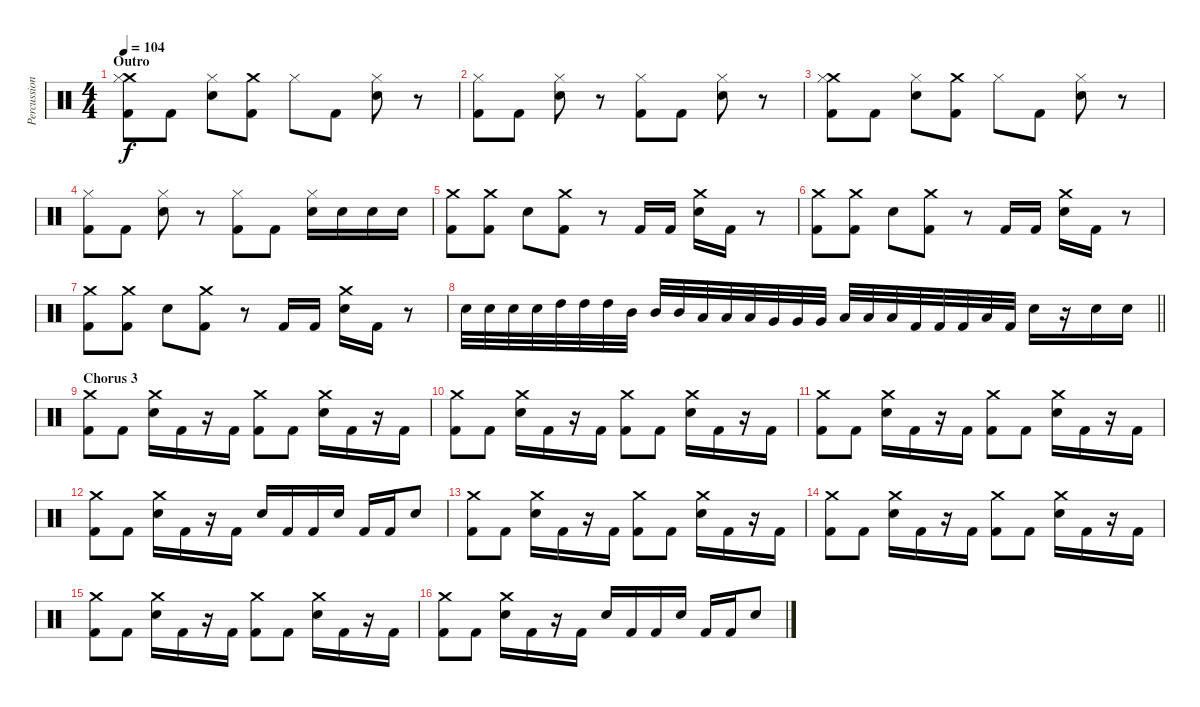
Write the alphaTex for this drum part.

\track ("Percussioni" "Percussion") {instrument percussion}
\staff {score}
\articulation defaults
\ts (4 4)
\section ("" "Outro")
\tempo 104
\clef neutral
\ks c
("Crash medium (hit)" "Hi-Hat (closed)" "Kick (hit) 2").8{dy f} "Kick (hit) 2".8 ("Hi-Hat (closed)" "Electric Snare (hit)").8 ("Crash medium (hit)" "Kick (hit) 2").8 "Hi-Hat (closed)".8 "Kick (hit) 2".8 ("Hi-Hat (closed)" "Electric Snare (hit)").8 r.8 |
("Hi-Hat (closed)" "Kick (hit) 2").8 "Kick (hit) 2".8 ("Hi-Hat (closed)" "Electric Snare (hit)").8 r.8 ("Hi-Hat (closed)" "Kick (hit) 2").8 "Kick (hit) 2".8 ("Hi-Hat (closed)" "Electric Snare (hit)").8 r.8 |
("Crash medium (hit)" "Hi-Hat (closed)" "Kick (hit) 2").8 "Kick (hit) 2".8 ("Hi-Hat (closed)" "Electric Snare (hit)").8 ("Crash medium (hit)" "Kick (hit) 2").8 "Hi-Hat (closed)".8 "Kick (hit) 2".8 ("Hi-Hat (closed)" "Electric Snare (hit)").8 r.8 |
("Hi-Hat (closed)" "Kick (hit) 2").8 "Kick (hit) 2".8 ("Hi-Hat (closed)" "Electric Snare (hit)").8 r.8 ("Hi-Hat (closed)" "Kick (hit) 2").8 "Kick (hit) 2".8 ("Hi-Hat (closed)" "Electric Snare (hit)").16 "Electric Snare (hit)".16 "Electric Snare (hit)".16 "Electric Snare (hit)".16 |
("Crash medium (hit)" "Kick (hit) 2").8 ("Crash medium (hit)" "Kick (hit) 2").8 "Electric Snare (hit)".8 ("Crash medium (hit)" "Kick (hit) 2").8 r.8 "Kick (hit) 2".16 "Kick (hit) 2".16 ("Crash medium (hit)" "Electric Snare (hit)").16 "Kick (hit) 2".16 r.8 |
("Crash medium (hit)" "Kick (hit) 2").8 ("Crash medium (hit)" "Kick (hit) 2").8 "Electric Snare (hit)".8 ("Crash medium (hit)" "Kick (hit) 2").8 r.8 "Kick (hit) 2".16 "Kick (hit) 2".16 ("Crash medium (hit)" "Electric Snare (hit)").16 "Kick (hit) 2".16 r.8 |
("Crash medium (hit)" "Kick (hit) 2").8 ("Crash medium (hit)" "Kick (hit) 2").8 "Electric Snare (hit)".8 ("Crash medium (hit)" "Kick (hit) 2").8 r.8 "Kick (hit) 2".16 "Kick (hit) 2".16 ("Crash medium (hit)" "Electric Snare (hit)").16 "Kick (hit) 2".16 r.8 |
\barLineRight lightlight "Electric Snare (hit)".32 "Electric Snare (hit)".32 "Electric Snare (hit)".32 "Electric Snare (hit)".32 "High Tom (hit)".32 "High Tom (hit)".32 "High Tom (hit)".32 "Mid Tom (hit)".32 "Mid Tom (hit)".32 "Mid Tom (hit)".32 "Low Tom (hit)".32 "Low Tom (hit)".32 "Low Tom (hit)".32 "Very Low Tom (hit)".32 "Very Low Tom (hit)".32 "Very Low Tom (hit)".32 "Low Floor Tom (hit)".32 "Low Floor Tom (hit)".32 "Low Floor Tom (hit)".32 "Kick (hit) 2".32 "Kick (hit) 2".32 "Kick (hit) 2".32 "Low Floor Tom (hit)".32 "Kick (hit) 2".32 "Electric Snare (hit)".16
r.16 "Electric Snare (hit)".16 "Electric Snare (hit)".16 |
\section ("" "Chorus 3")
("Crash medium (hit)" "Kick (hit) 2").8 "Kick (hit) 2".8 ("Crash medium (hit)" "Electric Snare (hit)").16 "Kick (hit) 2".16 r.16 "Kick (hit) 2".16 ("Crash medium (hit)" "Kick (hit) 2").8 "Kick (hit) 2".8 ("Crash medium (hit)" "Electric Snare (hit)").16 "Kick (hit) 2".16 r.16 "Kick (hit) 2".16 |
("Crash medium (hit)" "Kick (hit) 2").8 "Kick (hit) 2".8 ("Crash medium (hit)" "Electric Snare (hit)").16 "Kick (hit) 2".16 r.16 "Kick (hit) 2".16 ("Crash medium (hit)" "Kick (hit) 2").8 "Kick (hit) 2".8 ("Crash medium (hit)" "Electric Snare (hit)").16 "Kick (hit) 2".16 r.16 "Kick (hit) 2".16 |
("Crash medium (hit)" "Kick (hit) 2").8 "Kick (hit) 2".8 ("Crash medium (hit)" "Electric Snare (hit)").16 "Kick (hit) 2".16 r.16 "Kick (hit) 2".16 ("Crash medium (hit)" "Kick (hit) 2").8 "Kick (hit) 2".8 ("Crash medium (hit)" "Electric Snare (hit)").16 "Kick (hit) 2".16 r.16 "Kick (hit) 2".16 |
("Crash medium (hit)" "Kick (hit) 2").8 "Kick (hit) 2".8 ("Crash medium (hit)" "Electric Snare (hit)").16 "Kick (hit) 2".16 r.16 "Kick (hit) 2".16 "Electric Snare (hit)".16 "Kick (hit) 2".16 "Kick (hit) 2".16 "Electric Snare (hit)".16 "Kick (hit) 2".16 "Kick (hit) 2".16 "Electric Snare (hit)".8 |
("Crash medium (hit)" "Kick (hit) 2").8 "Kick (hit) 2".8 ("Crash medium (hit)" "Electric Snare (hit)").16 "Kick (hit) 2".16 r.16 "Kick (hit) 2".16 ("Crash medium (hit)" "Kick (hit) 2").8 "Kick (hit) 2".8 ("Crash medium (hit)" "Electric Snare (hit)").16 "Kick (hit) 2".16 r.16 "Kick (hit) 2".16 |
("Crash medium (hit)" "Kick (hit) 2").8 "Kick (hit) 2".8 ("Crash medium (hit)" "Electric Snare (hit)").16 "Kick (hit) 2".16 r.16 "Kick (hit) 2".16 ("Crash medium (hit)" "Kick (hit) 2").8 "Kick (hit) 2".8 ("Crash medium (hit)" "Electric Snare (hit)").16 "Kick (hit) 2".16 r.16 "Kick (hit) 2".16 |
("Crash medium (hit)" "Kick (hit) 2").8 "Kick (hit) 2".8 ("Crash medium (hit)" "Electric Snare (hit)").16 "Kick (hit) 2".16 r.16 "Kick (hit) 2".16 ("Crash medium (hit)" "Kick (hit) 2").8 "Kick (hit) 2".8 ("Crash medium (hit)" "Electric Snare (hit)").16 "Kick (hit) 2".16 r.16 "Kick (hit) 2".16 |
("Crash medium (hit)" "Kick (hit) 2").8 "Kick (hit) 2".8 ("Crash medium (hit)" "Electric Snare (hit)").16 "Kick (hit) 2".16 r.16 "Kick (hit) 2".16 "Electric Snare (hit)".16 "Kick (hit) 2".16 "Kick (hit) 2".16 "Electric Snare (hit)".16 "Kick (hit) 2".16 "Kick (hit) 2".16 "Electric Snare (hit)".8
